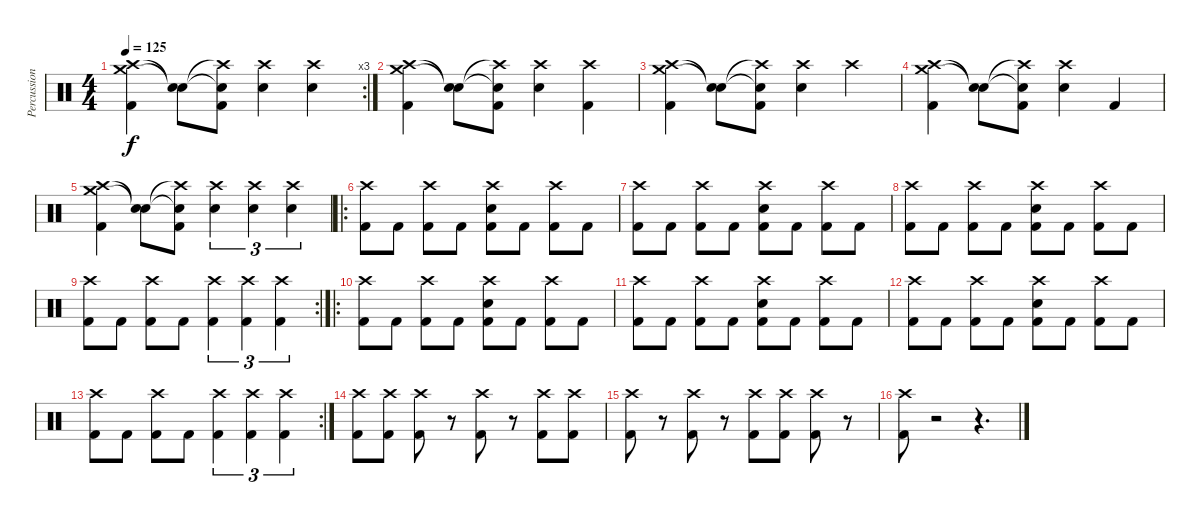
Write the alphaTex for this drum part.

\track ("Percussion" "Percussion") {instrument percussion}
\staff {score}
\articulation defaults
\rc 3
\ts (4 4)
\tempo 125
\clef neutral
\ks c
("Crash medium (hit)" "Crash high (hit)" "Kick (hit) 2").4{dy f} ("Snare (hit)"{t} "Snare (hit)"{t}).8 ("Snare (hit)"{t} "Crash high (hit)"{t} "Kick (hit) 2").8 ("Crash high (hit)" "Electric Snare (hit)").4 ("Crash high (hit)" "Electric Snare (hit)").4 |
("Crash medium (hit)" "Crash high (hit)" "Kick (hit) 2").4 ("Snare (hit)"{t} "Snare (hit)"{t}).8 ("Snare (hit)"{t} "Crash high (hit)"{t} "Kick (hit) 2").8 ("Crash high (hit)" "Electric Snare (hit)").4 ("Crash high (hit)" "Kick (hit) 2").4 |
("Crash medium (hit)" "Crash high (hit)" "Kick (hit) 2").4 ("Snare (hit)"{t} "Snare (hit)"{t}).8 ("Snare (hit)"{t} "Crash high (hit)"{t} "Kick (hit) 2").8 ("Crash high (hit)" "Electric Snare (hit)").4 "Crash high (hit)".4 |
("Crash medium (hit)" "Crash high (hit)" "Kick (hit) 2").4 ("Snare (hit)"{t} "Snare (hit)"{t}).8 ("Snare (hit)"{t} "Crash high (hit)"{t} "Kick (hit) 2").8 ("Crash high (hit)" "Electric Snare (hit)").4 "Kick (hit) 2".4 |
("Crash medium (hit)" "Crash high (hit)" "Kick (hit) 2").4 ("Snare (hit)"{t} "Snare (hit)"{t}).8 ("Snare (hit)"{t} "Crash high (hit)"{t} "Kick (hit) 2").8 ("Crash high (hit)" "Electric Snare (hit)").4{tu (3 2)} ("Crash high (hit)" "Electric Snare (hit)").4{tu (3 2)} ("Crash high (hit)" "Electric Snare (hit)").4{tu (3 2)} |
\ro
("Crash high (hit)" "Kick (hit) 2").8 "Kick (hit) 2".8 ("Crash high (hit)" "Kick (hit) 2").8 "Kick (hit) 2".8 ("Crash high (hit)" "Electric Snare (hit)" "Kick (hit) 2").8 "Kick (hit) 2".8 ("Crash high (hit)" "Kick (hit) 2").8 "Kick (hit) 2".8 |
("Crash high (hit)" "Kick (hit) 2").8 "Kick (hit) 2".8 ("Crash high (hit)" "Kick (hit) 2").8 "Kick (hit) 2".8 ("Crash high (hit)" "Electric Snare (hit)" "Kick (hit) 2").8 "Kick (hit) 2".8 ("Crash high (hit)" "Kick (hit) 2").8 "Kick (hit) 2".8 |
("Crash high (hit)" "Kick (hit) 2").8 "Kick (hit) 2".8 ("Crash high (hit)" "Kick (hit) 2").8 "Kick (hit) 2".8 ("Crash high (hit)" "Electric Snare (hit)" "Kick (hit) 2").8 "Kick (hit) 2".8 ("Crash high (hit)" "Kick (hit) 2").8 "Kick (hit) 2".8 |
\rc 2
("Crash high (hit)" "Kick (hit) 2").8 "Kick (hit) 2".8 ("Crash high (hit)" "Kick (hit) 2").8 "Kick (hit) 2".8 ("Crash high (hit)" "Kick (hit) 2").4{tu (3 2)} ("Crash high (hit)" "Kick (hit) 2").4{tu (3 2)} ("Crash high (hit)" "Kick (hit) 2").4{tu (3 2)} |
\ro
("Crash high (hit)" "Kick (hit) 2").8 "Kick (hit) 2".8 ("Crash high (hit)" "Kick (hit) 2").8 "Kick (hit) 2".8 ("Crash high (hit)" "Electric Snare (hit)" "Kick (hit) 2").8 "Kick (hit) 2".8 ("Crash high (hit)" "Kick (hit) 2").8 "Kick (hit) 2".8 |
("Crash high (hit)" "Kick (hit) 2").8 "Kick (hit) 2".8 ("Crash high (hit)" "Kick (hit) 2").8 "Kick (hit) 2".8 ("Crash high (hit)" "Electric Snare (hit)" "Kick (hit) 2").8 "Kick (hit) 2".8 ("Crash high (hit)" "Kick (hit) 2").8 "Kick (hit) 2".8 |
("Crash high (hit)" "Kick (hit) 2").8 "Kick (hit) 2".8 ("Crash high (hit)" "Kick (hit) 2").8 "Kick (hit) 2".8 ("Crash high (hit)" "Electric Snare (hit)" "Kick (hit) 2").8 "Kick (hit) 2".8 ("Crash high (hit)" "Kick (hit) 2").8 "Kick (hit) 2".8 |
\rc 2
("Crash high (hit)" "Kick (hit) 2").8 "Kick (hit) 2".8 ("Crash high (hit)" "Kick (hit) 2").8 "Kick (hit) 2".8 ("Crash high (hit)" "Kick (hit) 2").4{tu (3 2)} ("Crash high (hit)" "Kick (hit) 2").4{tu (3 2)} ("Crash high (hit)" "Kick (hit) 2").4{tu (3 2)} |
("Crash high (hit)" "Kick (hit) 2").8 ("Crash high (hit)" "Kick (hit) 2").8 ("Crash high (hit)" "Kick (hit) 2").8 r.8 ("Crash high (hit)" "Kick (hit) 2").8 r.8 ("Crash high (hit)" "Kick (hit) 2").8 ("Crash high (hit)" "Kick (hit) 2").8 |
("Crash high (hit)" "Kick (hit) 2").8 r.8 ("Crash high (hit)" "Kick (hit) 2").8 r.8 ("Crash high (hit)" "Kick (hit) 2").8 ("Crash high (hit)" "Kick (hit) 2").8 ("Crash high (hit)" "Kick (hit) 2").8 r.8 |
("Crash high (hit)" "Kick (hit) 2").8 r.2 r.4{d}
